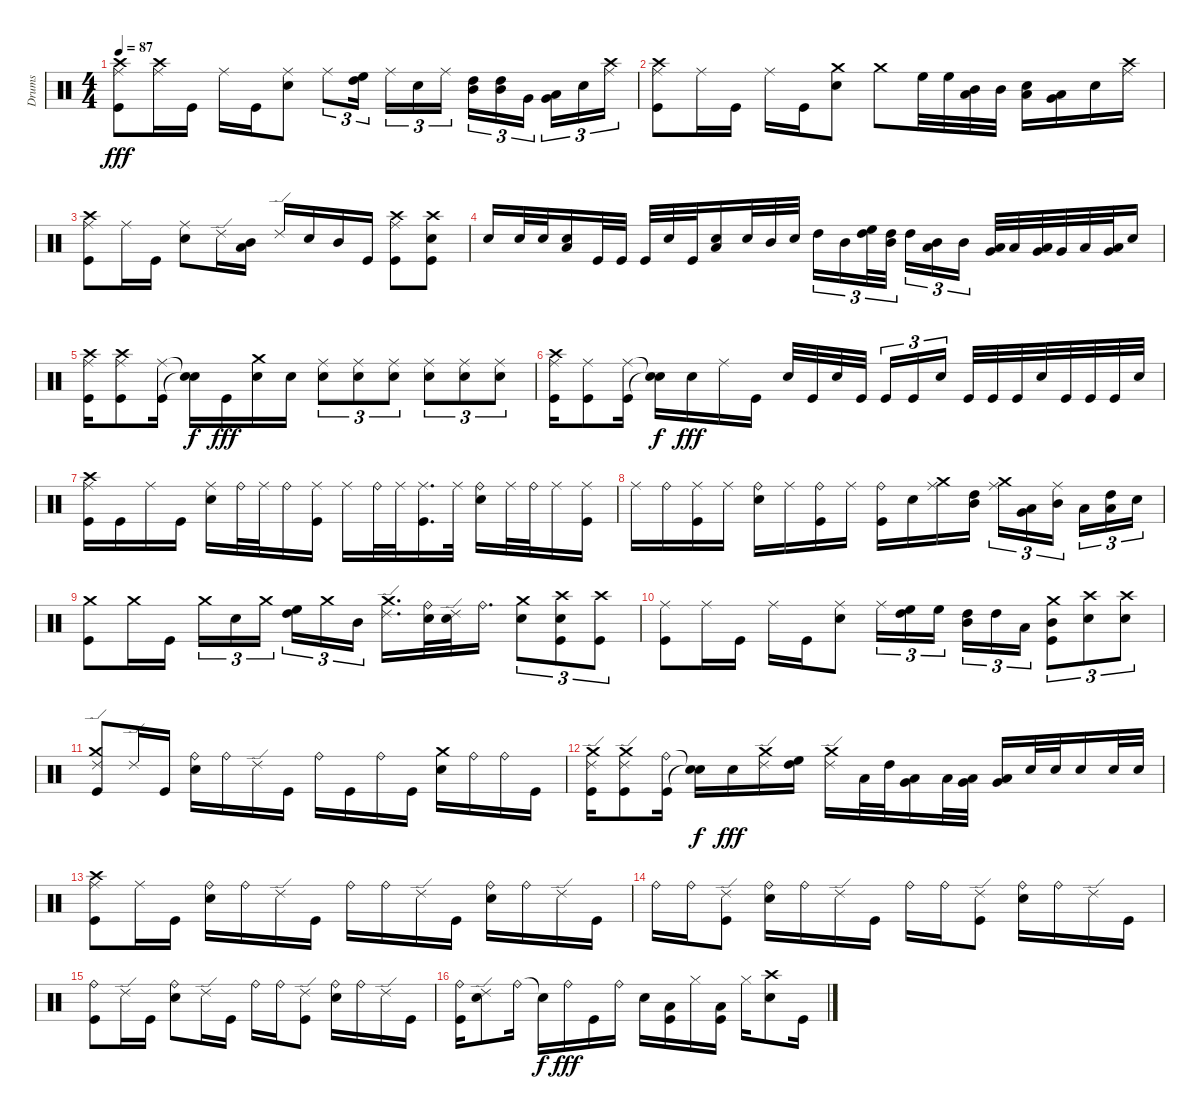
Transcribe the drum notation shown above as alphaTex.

\track ("Drums" "Drums") {instrument percussion}
\staff {score}
\articulation defaults
\ts (4 4)
\tempo 87
\clef neutral
\ks c
("Ride (middle)" "Crash high (hit)" "Kick (hit)").8{dy fff} ("Ride (middle)" "Crash high (hit)").16 "Kick (hit)".16 "Ride (middle)".16 "Kick (hit)".16 ("Ride (middle)" "Snare (hit) 2").8 "Ride (middle)".8{tu (3 2)} ("High Floor Tom (hit)" "High Tom (hit)").16{tu (3 2)} "Ride (middle)".16{tu (3 2)} "Snare (hit) 2".16{tu (3 2)} "Ride (middle)".16{tu (3 2)} ("High Tom (hit)" "Mid Tom (hit)").16{tu (3 2)} ("High Tom (hit)" "Mid Tom (hit)").16{tu (3 2)} "Very Low Tom (hit)".16{tu (3 2)} ("Low Tom (hit)" "Very Low Tom (hit)").16{tu (3 2)} "Snare (hit) 2".16{tu (3 2)} ("Ride (middle)" "Crash high (hit)").16{tu (3 2)} |
("Ride (middle)" "Crash high (hit)" "Kick (hit)").8 "Ride (middle)".16 "Kick (hit)".16 "Ride (middle)".16 "Kick (hit)".16 ("Crash medium (hit)" "Snare (hit) 2").8 "Crash medium (hit)".8 "High Floor Tom (hit)".32 "High Floor Tom (hit)".32 ("Mid Tom (hit)" "Low Tom (hit)").32 "Mid Tom (hit)".32 ("Low Floor Tom (hit)" "Snare (hit) 2").16 ("Low Tom (hit)" "Very Low Tom (hit)").16 "Snare (hit) 2".16 ("Ride (middle)" "Crash high (hit)").16 |
("Ride (middle)" "Crash high (hit)" "Kick (hit)").8 "Ride (middle)".16 "Kick (hit)".16 ("Ride (middle)" "Snare (hit) 2").8 "Ride (edge) 2".16 ("Mid Tom (hit)" "Low Tom (hit)").16 "Ride (edge) 2".16 "Snare (hit) 2".16 "Mid Tom (hit)".16 "Kick (hit)".16 ("Ride (middle)" "Crash high (hit)" "Kick (hit)").8 ("Crash high (hit)" "Snare (hit) 2" "Kick (hit)").8 |
"Snare (hit) 2".16 "Snare (hit) 2".32 "Snare (hit) 2".32 ("Low Floor Tom (hit)" "Snare (hit) 2").16 "Kick (hit)".32 "Kick (hit)".32 "Kick (hit)".32 "Snare (hit) 2".32 "Kick (hit)".32 ("Low Floor Tom (hit)" "Snare (hit) 2").16 "Snare (hit) 2".32 "Mid Tom (hit)".32 "Snare (hit) 2".32 "High Tom (hit)".16{tu (3 2)} "Mid Tom (hit)".16{tu (3 2)} ("High Floor Tom (hit)" "High Tom (hit)").32{tu (3 2)} ("High Tom (hit)" "Mid Tom (hit)").32{tu (3 2)} "High Tom (hit)".16{tu (3 2)} ("Mid Tom (hit)" "Low Tom (hit)").16{tu (3 2)} "Mid Tom (hit)".16{tu (3 2)} ("Low Tom (hit)" "Very Low Tom (hit)").32 "Low Tom (hit)".32 ("Very Low Tom (hit)" "Low Floor Tom (hit)").32 "Very Low Tom (hit)".32 "Low Floor Tom (hit)".32 ("Very Low Tom (hit)" "Low Floor Tom (hit)").32 "Snare (hit) 2".16 |
("Ride (middle)" "Crash high (hit)" "Kick (hit)").16 ("Ride (middle)" "Crash high (hit)" "Kick (hit)").8 ("Ride (middle)" "Kick (hit)").16 ("Snare (hit)"{t} "Snare (hit)"{t}).16{dy f} "Kick (hit)".16{dy fff} ("Crash medium (hit)" "Snare (hit) 2").16 "Snare (hit) 2".16 ("Ride (middle)" "Snare (hit) 2").8{tu (3 2)} ("Ride (middle)" "Snare (hit) 2").8{tu (3 2)} ("Ride (middle)" "Snare (hit) 2").8{tu (3 2)} ("Ride (middle)" "Snare (hit) 2").8{tu (3 2)} ("Ride (middle)" "Snare (hit) 2").8{tu (3 2)} ("Ride (middle)" "Snare (hit) 2").8{tu (3 2)} |
("Ride (middle)" "Crash high (hit)" "Kick (hit)").16 ("Ride (middle)" "Kick (hit)").8 ("Ride (middle)" "Kick (hit)").16 ("Snare (hit)"{t} "Snare (hit)"{t}).16{dy f} "Snare (hit) 2".16{dy fff} "Ride (middle)".16 "Kick (hit)".16 "Snare (hit) 2".32 "Kick (hit)".32 "Snare (hit) 2".32 "Kick (hit)".32 "Kick (hit)".16{tu (3 2)} "Kick (hit)".16{tu (3 2)} "Snare (hit) 2".16{tu (3 2)} "Kick (hit)".32 "Kick (hit)".32 "Kick (hit)".32 "Snare (hit) 2".32 "Kick (hit)".32 "Kick (hit)".32 "Kick (hit)".32 "Snare (hit) 2".32 |
("Ride (middle)" "Crash high (hit)" "Kick (hit)").16 "Kick (hit)".16 "Ride (middle)".16 "Kick (hit)".16 ("Ride (middle)" "Snare (hit) 2").16 "Ride (bell)".32 "Ride (middle)".32 "Ride (bell)".16 ("Ride (middle)" "Kick (hit)").16 "Ride (middle)".16 "Ride (bell)".32 "Ride (middle)".32 ("Ride (middle)" "Kick (hit)").16{d} "Ride (middle)".32 ("Ride (bell)" "Snare (hit) 2").16 "Ride (middle)".32 "Ride (bell)".32 "Ride (middle)".16 ("Ride (middle)" "Kick (hit)").16 |
"Ride (middle)".16 "Ride (bell)".16 ("Ride (middle)" "Kick (hit)").16 "Ride (middle)".16 ("Ride (bell)" "Snare (hit) 2").16 "Ride (middle)".16 ("Ride (bell)" "Kick (hit)").16 "Ride (middle)".16 ("Ride (bell)" "Kick (hit)").16 "Snare (hit) 2".16 ("Ride (middle)" "Crash medium (hit)").16 ("High Tom (hit)" "Mid Tom (hit)").16 ("Ride (middle)" "Crash medium (hit)").16{tu (3 2)} ("Low Tom (hit)" "Very Low Tom (hit)").16{tu (3 2)} ("Ride (middle)" "Mid Tom (hit)").16{tu (3 2)} "Low Floor Tom (hit)".16{tu (3 2)} ("High Tom (hit)" "Low Tom (hit)").16{tu (3 2)} "Snare (hit) 2".16{tu (3 2)} |
("Crash medium (hit)" "Kick (hit)").8 "Crash medium (hit)".16 "Kick (hit)".16 "Crash medium (hit)".16{tu (3 2)} "Snare (hit) 2".16{tu (3 2)} "Crash medium (hit)".16{tu (3 2)} ("High Floor Tom (hit)" "High Tom (hit)").16{tu (3 2)} "Crash medium (hit)".16{tu (3 2)} "Mid Tom (hit)".16{tu (3 2)} ("Ride (edge) 2" "Crash medium (hit)").16{d} ("Ride (bell)" "Snare (hit) 2").32 ("Ride (edge) 2" "Snare (hit) 2").32 "Ride (bell)".16{d} ("Crash medium (hit)" "Snare (hit) 2").8{tu (3 2)} ("Crash high (hit)" "Snare (hit) 2" "Kick (hit)").8{tu (3 2)} ("Crash high (hit)" "Kick (hit)").8{tu (3 2)} |
("Ride (middle)" "Kick (hit)").8 "Ride (middle)".16 "Kick (hit)".16 "Ride (middle)".16 "Kick (hit)".16 ("Ride (middle)" "Snare (hit) 2").8 "Ride (middle)".16{tu (3 2)} ("High Floor Tom (hit)" "High Tom (hit)").16{tu (3 2)} "High Floor Tom (hit)".16{tu (3 2)} ("High Tom (hit)" "Mid Tom (hit)").16{tu (3 2)} "High Tom (hit)".16{tu (3 2)} "Low Tom (hit)".16{tu (3 2)} ("Crash medium (hit)" "Mid Tom (hit)" "Kick (hit)").8{tu (3 2)} ("Crash high (hit)" "Snare (hit) 2").8{tu (3 2)} ("Crash high (hit)" "Snare (hit) 2").8{tu (3 2)} |
("Ride (edge) 2" "Crash medium (hit)" "Kick (hit)").8 "Ride (edge) 2".16 "Kick (hit)".16 ("Ride (bell)" "Snare (hit) 2").16 "Ride (bell)".16 "Ride (edge) 2".16 "Kick (hit)".16 "Ride (bell)".16 "Kick (hit)".16 "Ride (bell)".16 "Kick (hit)".16 ("Crash medium (hit)" "Snare (hit) 2").16 "Ride (bell)".16 "Ride (bell)".16 "Kick (hit)".16 |
("Ride (edge) 2" "Crash medium (hit)" "Kick (hit)").16 ("Ride (edge) 2" "Crash medium (hit)" "Kick (hit)").8 ("Ride (bell)" "Kick (hit)").16 ("Snare (hit)"{t} "Snare (hit)"{t}).16{dy f} "Snare (hit) 2".16{dy fff} ("Ride (edge) 2" "Crash medium (hit)").16 ("High Floor Tom (hit)" "High Tom (hit)").16 ("Ride (edge) 2" "Crash medium (hit)").16 "Low Tom (hit)".32 "High Tom (hit)".32 ("Low Tom (hit)" "Very Low Tom (hit)").16 "Low Tom (hit)".32 ("Very Low Tom (hit)" "Low Floor Tom (hit)").32 ("Very Low Tom (hit)" "Low Floor Tom (hit)").16 "Snare (hit) 2".32 "Snare (hit) 2".32 "Snare (hit) 2".16 "Snare (hit) 2".32 "Snare (hit) 2".32 |
("Ride (middle)" "Crash high (hit)" "Kick (hit)").8 "Ride (middle)".16 "Kick (hit)".16 ("Ride (bell)" "Snare (hit) 2").16 "Ride (bell)".16 "Ride (edge) 2".16 "Kick (hit)".16 "Ride (bell)".16 "Ride (bell)".16 "Ride (edge) 2".16 "Kick (hit)".16 ("Ride (bell)" "Snare (hit) 2").16 "Ride (bell)".16 "Ride (edge) 2".16 "Kick (hit)".16 |
"Ride (bell)".16 "Ride (bell)".16 ("Ride (edge) 2" "Kick (hit)").8 ("Ride (bell)" "Snare (hit) 2").16 "Ride (bell)".16 "Ride (edge) 2".16 "Kick (hit)".16 "Ride (bell)".16 "Ride (bell)".16 ("Ride (edge) 2" "Kick (hit)").8 ("Ride (bell)" "Snare (hit) 2").16 "Ride (bell)".16 "Ride (edge) 2".16 "Kick (hit)".16 |
("Ride (bell)" "Kick (hit)").8 "Ride (edge) 2".16 "Kick (hit)".16 ("Ride (bell)" "Snare (hit) 2").8 "Ride (edge) 2".16 "Kick (hit)".16 "Ride (bell)".16 "Ride (bell)".16 ("Ride (edge) 2" "Kick (hit)").8 ("Ride (bell)" "Snare (hit) 2").16 "Ride (bell)".16 "Ride (edge) 2".16 "Kick (hit)".16 |
("Ride (bell)" "Kick (hit)").16 ("Ride (edge) 2" "Snare (hit) 2").8 "Ride (bell)".16 "Snare (hit)"{t}.16{dy f} "Ride (bell)".16{dy fff} "Kick (hit)".16 "Ride (bell)".16 "Snare (hit) 2".16 ("Low Tom (hit)" "Kick (hit)").16 "Hi-Hat (closed)".16 ("Low Tom (hit)" "Kick (hit)").16 "Hi-Hat (closed)".16 ("Crash high (hit)" "Snare (hit) 2").8 "Kick (hit)".16
